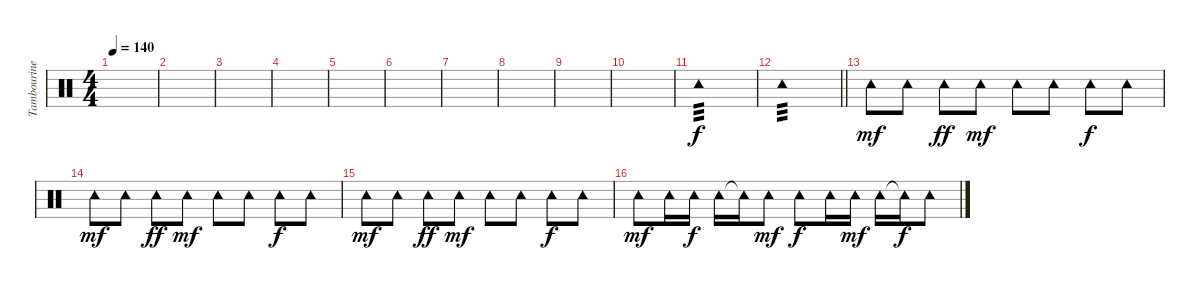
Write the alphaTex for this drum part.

\track ("Tambourine" "Tambourine") {instrument percussion}
\staff {score}
\articulation defaults
\ts (4 4)
\tempo 140
\clef neutral
\ks c
|
|
|
|
|
|
|
|
|
|
"Tambourine (hit)".1{tp 3} |
\barLineRight lightlight "Tambourine (hit)".1{tp 3}
|
"Tambourine (hit)".8{dy mf} "Tambourine (hit)".8 "Tambourine (hit)".8{dy ff} "Tambourine (hit)".8{dy mf} "Tambourine (hit)".8 "Tambourine (hit)".8 "Tambourine (hit)".8{dy f} "Tambourine (hit)".8 |
"Tambourine (hit)".8{dy mf} "Tambourine (hit)".8 "Tambourine (hit)".8{dy ff} "Tambourine (hit)".8{dy mf} "Tambourine (hit)".8 "Tambourine (hit)".8 "Tambourine (hit)".8{dy f} "Tambourine (hit)".8 |
"Tambourine (hit)".8{dy mf} "Tambourine (hit)".8 "Tambourine (hit)".8{dy ff} "Tambourine (hit)".8{dy mf} "Tambourine (hit)".8 "Tambourine (hit)".8 "Tambourine (hit)".8{dy f} "Tambourine (hit)".8 |
"Tambourine (hit)".8{dy mf} "Tambourine (hit)".16 "Tambourine (hit)".16{dy f} "Tambourine (hit)".16 "Tambourine (hit)"{t}.16 "Tambourine (hit)".8{dy mf} "Tambourine (hit)".8{dy f} "Tambourine (hit)".16 "Tambourine (hit)".16{dy mf} "Tambourine (hit)".16 "Tambourine (hit)"{t}.16{dy f} "Tambourine (hit)".8
